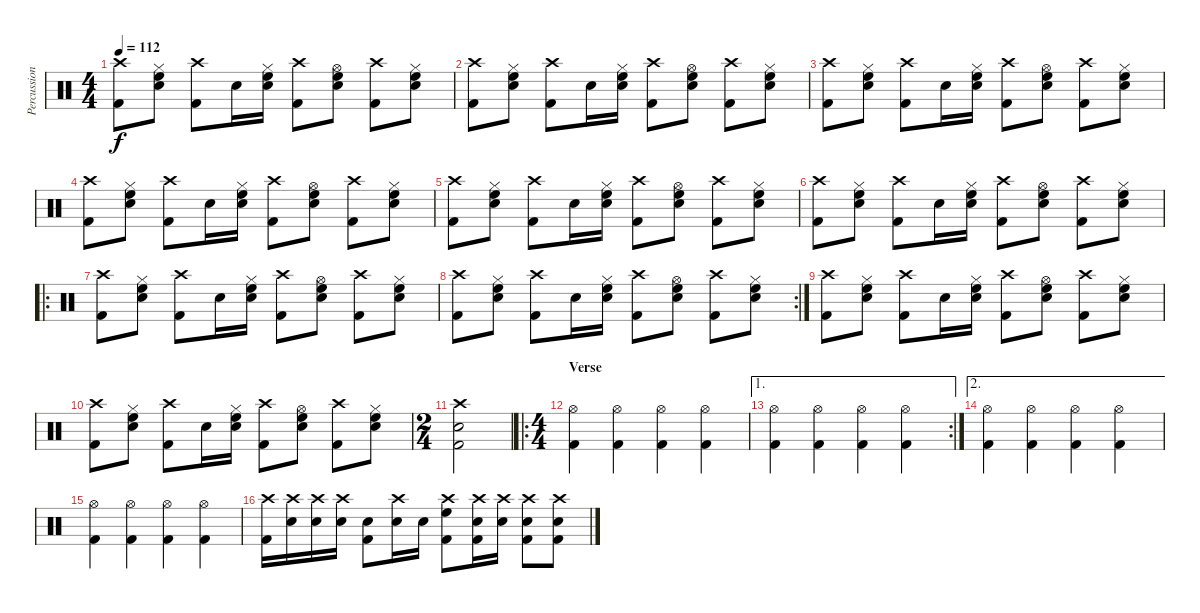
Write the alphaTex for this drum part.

\track ("Percussion" "Percussion") {instrument percussion}
\staff {score}
\articulation defaults
\ts (4 4)
\tempo 112
\clef neutral
\ks c
("Crash high (hit)" "Kick (hit) 2").8{dy f} ("Hi-Hat (closed)" "Snare (hit) 2" "High Floor Tom (hit)").8 ("Crash high (hit)" "Kick (hit) 2").8 "Snare (hit) 2".16 ("Hi-Hat (closed)" "Snare (hit) 2" "High Floor Tom (hit)").16 ("Crash high (hit)" "Kick (hit) 2").8 ("Hi-Hat (open)" "Snare (hit) 2" "High Floor Tom (hit)").8 ("Crash high (hit)" "Kick (hit) 2").8 ("Hi-Hat (closed)" "Snare (hit) 2" "High Floor Tom (hit)").8 |
("Crash high (hit)" "Kick (hit) 2").8 ("Hi-Hat (closed)" "Snare (hit) 2" "High Floor Tom (hit)").8 ("Crash high (hit)" "Kick (hit) 2").8 "Snare (hit) 2".16 ("Hi-Hat (closed)" "Snare (hit) 2" "High Floor Tom (hit)").16 ("Crash high (hit)" "Kick (hit) 2").8 ("Hi-Hat (open)" "Snare (hit) 2" "High Floor Tom (hit)").8 ("Crash high (hit)" "Kick (hit) 2").8 ("Hi-Hat (closed)" "Snare (hit) 2" "High Floor Tom (hit)").8 |
("Crash high (hit)" "Kick (hit) 2").8 ("Hi-Hat (closed)" "Snare (hit) 2" "High Floor Tom (hit)").8 ("Crash high (hit)" "Kick (hit) 2").8 "Snare (hit) 2".16 ("Hi-Hat (closed)" "Snare (hit) 2" "High Floor Tom (hit)").16 ("Crash high (hit)" "Kick (hit) 2").8 ("Hi-Hat (open)" "Snare (hit) 2" "High Floor Tom (hit)").8 ("Crash high (hit)" "Kick (hit) 2").8 ("Hi-Hat (closed)" "Snare (hit) 2" "High Floor Tom (hit)").8 |
("Crash high (hit)" "Kick (hit) 2").8 ("Hi-Hat (closed)" "Snare (hit) 2" "High Floor Tom (hit)").8 ("Crash high (hit)" "Kick (hit) 2").8 "Snare (hit) 2".16 ("Hi-Hat (closed)" "Snare (hit) 2" "High Floor Tom (hit)").16 ("Crash high (hit)" "Kick (hit) 2").8 ("Hi-Hat (open)" "Snare (hit) 2" "High Floor Tom (hit)").8 ("Crash high (hit)" "Kick (hit) 2").8 ("Hi-Hat (closed)" "Snare (hit) 2" "High Floor Tom (hit)").8 |
("Crash high (hit)" "Kick (hit) 2").8 ("Hi-Hat (closed)" "Snare (hit) 2" "High Floor Tom (hit)").8 ("Crash high (hit)" "Kick (hit) 2").8 "Snare (hit) 2".16 ("Hi-Hat (closed)" "Snare (hit) 2" "High Floor Tom (hit)").16 ("Crash high (hit)" "Kick (hit) 2").8 ("Hi-Hat (open)" "Snare (hit) 2" "High Floor Tom (hit)").8 ("Crash high (hit)" "Kick (hit) 2").8 ("Hi-Hat (closed)" "Snare (hit) 2" "High Floor Tom (hit)").8 |
("Crash high (hit)" "Kick (hit) 2").8 ("Hi-Hat (closed)" "Snare (hit) 2" "High Floor Tom (hit)").8 ("Crash high (hit)" "Kick (hit) 2").8 "Snare (hit) 2".16 ("Hi-Hat (closed)" "Snare (hit) 2" "High Floor Tom (hit)").16 ("Crash high (hit)" "Kick (hit) 2").8 ("Hi-Hat (open)" "Snare (hit) 2" "High Floor Tom (hit)").8 ("Crash high (hit)" "Kick (hit) 2").8 ("Hi-Hat (closed)" "Snare (hit) 2" "High Floor Tom (hit)").8 |
\ro
("Crash high (hit)" "Kick (hit) 2").8 ("Hi-Hat (closed)" "Snare (hit) 2" "High Floor Tom (hit)").8 ("Crash high (hit)" "Kick (hit) 2").8 "Snare (hit) 2".16 ("Hi-Hat (closed)" "Snare (hit) 2" "High Floor Tom (hit)").16 ("Crash high (hit)" "Kick (hit) 2").8 ("Hi-Hat (open)" "Snare (hit) 2" "High Floor Tom (hit)").8 ("Crash high (hit)" "Kick (hit) 2").8 ("Hi-Hat (closed)" "Snare (hit) 2" "High Floor Tom (hit)").8 |
\rc 2
("Crash high (hit)" "Kick (hit) 2").8 ("Hi-Hat (closed)" "Snare (hit) 2" "High Floor Tom (hit)").8 ("Crash high (hit)" "Kick (hit) 2").8 "Snare (hit) 2".16 ("Hi-Hat (closed)" "Snare (hit) 2" "High Floor Tom (hit)").16 ("Crash high (hit)" "Kick (hit) 2").8 ("Hi-Hat (open)" "Snare (hit) 2" "High Floor Tom (hit)").8 ("Crash high (hit)" "Kick (hit) 2").8 ("Hi-Hat (closed)" "Snare (hit) 2" "High Floor Tom (hit)").8 |
("Crash high (hit)" "Kick (hit) 2").8 ("Hi-Hat (closed)" "Snare (hit) 2" "High Floor Tom (hit)").8 ("Crash high (hit)" "Kick (hit) 2").8 "Snare (hit) 2".16 ("Hi-Hat (closed)" "Snare (hit) 2" "High Floor Tom (hit)").16 ("Crash high (hit)" "Kick (hit) 2").8 ("Hi-Hat (open)" "Snare (hit) 2" "High Floor Tom (hit)").8 ("Crash high (hit)" "Kick (hit) 2").8 ("Hi-Hat (closed)" "Snare (hit) 2" "High Floor Tom (hit)").8 |
("Crash high (hit)" "Kick (hit) 2").8 ("Hi-Hat (closed)" "Snare (hit) 2" "High Floor Tom (hit)").8 ("Crash high (hit)" "Kick (hit) 2").8 "Snare (hit) 2".16 ("Hi-Hat (closed)" "Snare (hit) 2" "High Floor Tom (hit)").16 ("Crash high (hit)" "Kick (hit) 2").8 ("Hi-Hat (open)" "Snare (hit) 2" "High Floor Tom (hit)").8 ("Crash high (hit)" "Kick (hit) 2").8 ("Hi-Hat (closed)" "Snare (hit) 2" "High Floor Tom (hit)").8 |
\ts (2 4)
("Crash high (hit)" "Snare (hit) 2" "Kick (hit) 2").2 |
\ro
\ts (4 4)
\section ("" "Verse")
("Hi-Hat (open)" "Kick (hit) 2").4{volume 6} ("Hi-Hat (open)" "Kick (hit) 2").4 ("Hi-Hat (open)" "Kick (hit) 2").4 ("Hi-Hat (open)" "Kick (hit) 2").4 |
\ae 1
\rc 2
("Hi-Hat (open)" "Kick (hit) 2").4 ("Hi-Hat (open)" "Kick (hit) 2").4 ("Hi-Hat (open)" "Kick (hit) 2").4 ("Hi-Hat (open)" "Kick (hit) 2").4 |
\ae 2
("Hi-Hat (open)" "Kick (hit) 2").4 ("Hi-Hat (open)" "Kick (hit) 2").4 ("Hi-Hat (open)" "Kick (hit) 2").4 ("Hi-Hat (open)" "Kick (hit) 2").4 |
("Hi-Hat (open)" "Kick (hit) 2").4 ("Hi-Hat (open)" "Kick (hit) 2").4 ("Hi-Hat (open)" "Kick (hit) 2").4{volume 16} ("Hi-Hat (open)" "Kick (hit) 2").4 |
("Crash high (hit)" "Kick (hit) 2").16 ("Crash high (hit)" "Snare (hit) 2").16 ("Crash high (hit)" "Snare (hit) 2").16 ("Crash high (hit)" "Snare (hit) 2").16 ("Snare (hit) 2" "Kick (hit) 2").8 ("Crash high (hit)" "Snare (hit) 2").16 "Snare (hit) 2".16 ("Crash high (hit)" "High Floor Tom (hit)" "Kick (hit) 2").8 ("Crash high (hit)" "Snare (hit) 2" "Kick (hit) 2").16 ("Crash high (hit)" "Snare (hit) 2").16 ("Crash high (hit)" "Snare (hit) 2" "Kick (hit) 2").8 ("Crash high (hit)" "Snare (hit) 2" "Kick (hit) 2").8
